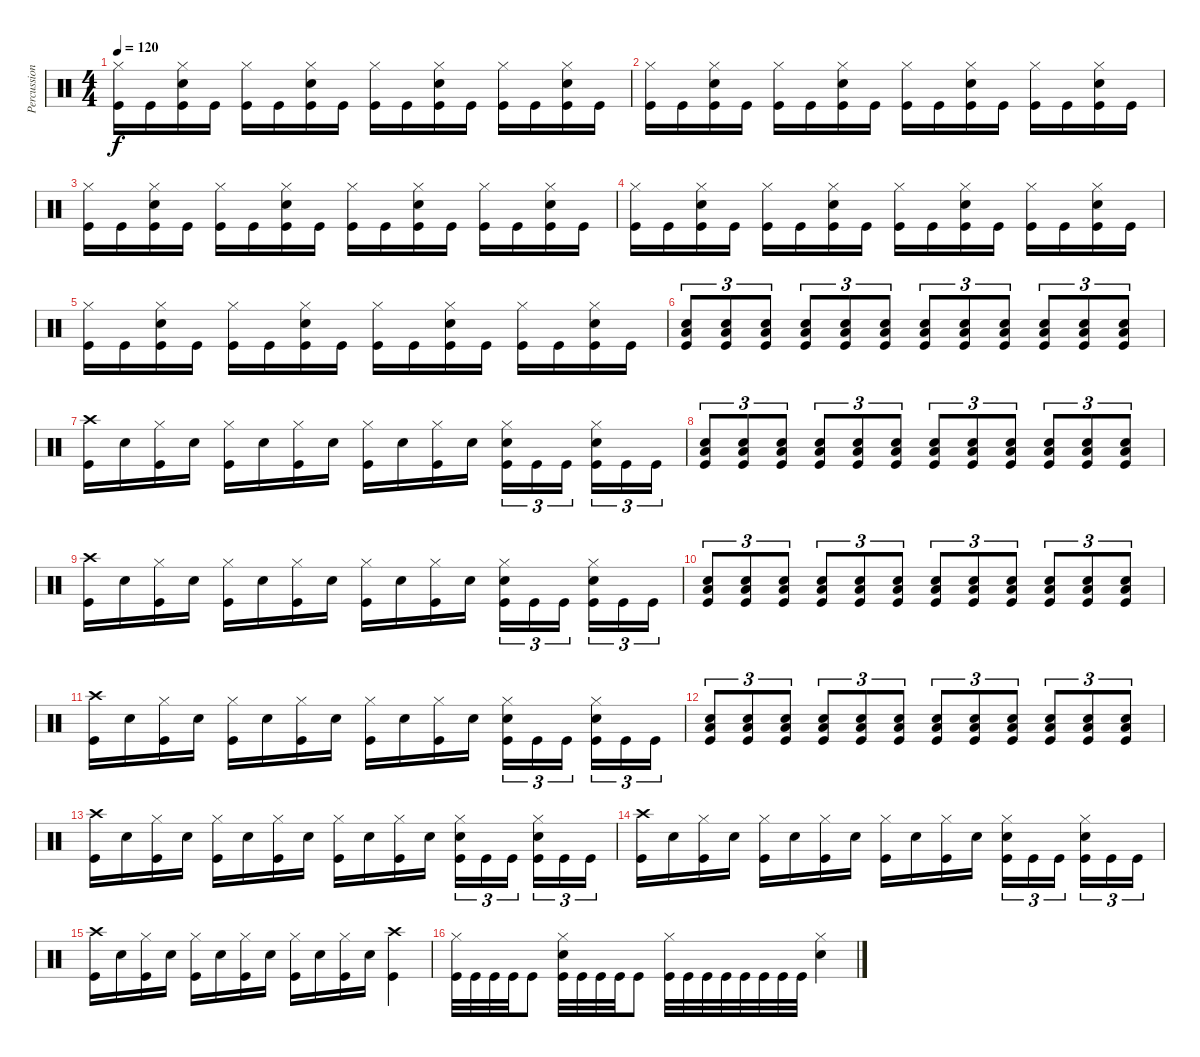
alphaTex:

\track ("Percussion" "Percussion") {instrument percussion}
\staff {score}
\articulation defaults
\ts (4 4)
\tempo 120
\clef neutral
\ks c
("Hi-Hat (closed)" "Kick (hit)").16{dy f} "Kick (hit)".16 ("Hi-Hat (closed)" "Snare (hit) 2" "Kick (hit)").16 "Kick (hit)".16 ("Hi-Hat (closed)" "Kick (hit)").16 "Kick (hit)".16 ("Hi-Hat (closed)" "Snare (hit) 2" "Kick (hit)").16 "Kick (hit)".16 ("Hi-Hat (closed)" "Kick (hit)").16 "Kick (hit)".16 ("Hi-Hat (closed)" "Snare (hit) 2" "Kick (hit)").16 "Kick (hit)".16 ("Hi-Hat (closed)" "Kick (hit)").16 "Kick (hit)".16 ("Hi-Hat (closed)" "Snare (hit) 2" "Kick (hit)").16 "Kick (hit)".16 |
("Hi-Hat (closed)" "Kick (hit)").16 "Kick (hit)".16 ("Hi-Hat (closed)" "Snare (hit) 2" "Kick (hit)").16 "Kick (hit)".16 ("Hi-Hat (closed)" "Kick (hit)").16 "Kick (hit)".16 ("Hi-Hat (closed)" "Snare (hit) 2" "Kick (hit)").16 "Kick (hit)".16 ("Hi-Hat (closed)" "Kick (hit)").16 "Kick (hit)".16 ("Hi-Hat (closed)" "Snare (hit) 2" "Kick (hit)").16 "Kick (hit)".16 ("Hi-Hat (closed)" "Kick (hit)").16 "Kick (hit)".16 ("Hi-Hat (closed)" "Snare (hit) 2" "Kick (hit)").16 "Kick (hit)".16 |
("Hi-Hat (closed)" "Kick (hit)").16 "Kick (hit)".16 ("Hi-Hat (closed)" "Snare (hit) 2" "Kick (hit)").16 "Kick (hit)".16 ("Hi-Hat (closed)" "Kick (hit)").16 "Kick (hit)".16 ("Hi-Hat (closed)" "Snare (hit) 2" "Kick (hit)").16 "Kick (hit)".16 ("Hi-Hat (closed)" "Kick (hit)").16 "Kick (hit)".16 ("Hi-Hat (closed)" "Snare (hit) 2" "Kick (hit)").16 "Kick (hit)".16 ("Hi-Hat (closed)" "Kick (hit)").16 "Kick (hit)".16 ("Hi-Hat (closed)" "Snare (hit) 2" "Kick (hit)").16 "Kick (hit)".16 |
("Hi-Hat (closed)" "Kick (hit)").16 "Kick (hit)".16 ("Hi-Hat (closed)" "Snare (hit) 2" "Kick (hit)").16 "Kick (hit)".16 ("Hi-Hat (closed)" "Kick (hit)").16 "Kick (hit)".16 ("Hi-Hat (closed)" "Snare (hit) 2" "Kick (hit)").16 "Kick (hit)".16 ("Hi-Hat (closed)" "Kick (hit)").16 "Kick (hit)".16 ("Hi-Hat (closed)" "Snare (hit) 2" "Kick (hit)").16 "Kick (hit)".16 ("Hi-Hat (closed)" "Kick (hit)").16 "Kick (hit)".16 ("Hi-Hat (closed)" "Snare (hit) 2" "Kick (hit)").16 "Kick (hit)".16 |
("Hi-Hat (closed)" "Kick (hit)").16 "Kick (hit)".16 ("Hi-Hat (closed)" "Snare (hit) 2" "Kick (hit)").16 "Kick (hit)".16 ("Hi-Hat (closed)" "Kick (hit)").16 "Kick (hit)".16 ("Hi-Hat (closed)" "Snare (hit) 2" "Kick (hit)").16 "Kick (hit)".16 ("Hi-Hat (closed)" "Kick (hit)").16 "Kick (hit)".16 ("Hi-Hat (closed)" "Snare (hit) 2" "Kick (hit)").16 "Kick (hit)".16 ("Hi-Hat (closed)" "Kick (hit)").16 "Kick (hit)".16 ("Hi-Hat (closed)" "Snare (hit) 2" "Kick (hit)").16 "Kick (hit)".16 |
("Low Floor Tom (hit)" "Snare (hit) 2" "Kick (hit)").8{tu (3 2)} ("Low Floor Tom (hit)" "Snare (hit) 2" "Kick (hit)").8{tu (3 2)} ("Low Floor Tom (hit)" "Snare (hit) 2" "Kick (hit)").8{tu (3 2)} ("Low Floor Tom (hit)" "Snare (hit) 2" "Kick (hit)").8{tu (3 2)} ("Low Floor Tom (hit)" "Snare (hit) 2" "Kick (hit)").8{tu (3 2)} ("Low Floor Tom (hit)" "Snare (hit) 2" "Kick (hit)").8{tu (3 2)} ("Low Floor Tom (hit)" "Snare (hit) 2" "Kick (hit)").8{tu (3 2)} ("Low Floor Tom (hit)" "Snare (hit) 2" "Kick (hit)").8{tu (3 2)} ("Low Floor Tom (hit)" "Snare (hit) 2" "Kick (hit)").8{tu (3 2)} ("Low Floor Tom (hit)" "Snare (hit) 2" "Kick (hit)").8{tu (3 2)} ("Low Floor Tom (hit)" "Snare (hit) 2" "Kick (hit)").8{tu (3 2)} ("Low Floor Tom (hit)" "Snare (hit) 2" "Kick (hit)").8{tu (3 2)} |
("Crash high (hit)" "Kick (hit)").16 "Snare (hit) 2".16 ("Hi-Hat (closed)" "Kick (hit)").16 "Snare (hit) 2".16 ("Hi-Hat (closed)" "Kick (hit)").16 "Snare (hit) 2".16 ("Hi-Hat (closed)" "Kick (hit)").16 "Snare (hit) 2".16 ("Hi-Hat (closed)" "Kick (hit)").16 "Snare (hit) 2".16 ("Hi-Hat (closed)" "Kick (hit)").16 "Snare (hit) 2".16 ("Hi-Hat (closed)" "Snare (hit) 2" "Kick (hit)").16{tu (3 2)} "Kick (hit)".16{tu (3 2)} "Kick (hit)".16{tu (3 2) beam splitsecondary} ("Hi-Hat (closed)" "Snare (hit) 2" "Kick (hit)").16{tu (3 2)} "Kick (hit)".16{tu (3 2)} "Kick (hit)".16{tu (3 2)} |
("Low Floor Tom (hit)" "Snare (hit) 2" "Kick (hit)").8{tu (3 2)} ("Low Floor Tom (hit)" "Snare (hit) 2" "Kick (hit)").8{tu (3 2)} ("Low Floor Tom (hit)" "Snare (hit) 2" "Kick (hit)").8{tu (3 2)} ("Low Floor Tom (hit)" "Snare (hit) 2" "Kick (hit)").8{tu (3 2)} ("Low Floor Tom (hit)" "Snare (hit) 2" "Kick (hit)").8{tu (3 2)} ("Low Floor Tom (hit)" "Snare (hit) 2" "Kick (hit)").8{tu (3 2)} ("Low Floor Tom (hit)" "Snare (hit) 2" "Kick (hit)").8{tu (3 2)} ("Low Floor Tom (hit)" "Snare (hit) 2" "Kick (hit)").8{tu (3 2)} ("Low Floor Tom (hit)" "Snare (hit) 2" "Kick (hit)").8{tu (3 2)} ("Low Floor Tom (hit)" "Snare (hit) 2" "Kick (hit)").8{tu (3 2)} ("Low Floor Tom (hit)" "Snare (hit) 2" "Kick (hit)").8{tu (3 2)} ("Low Floor Tom (hit)" "Snare (hit) 2" "Kick (hit)").8{tu (3 2)} |
("Crash high (hit)" "Kick (hit)").16 "Snare (hit) 2".16 ("Hi-Hat (closed)" "Kick (hit)").16 "Snare (hit) 2".16 ("Hi-Hat (closed)" "Kick (hit)").16 "Snare (hit) 2".16 ("Hi-Hat (closed)" "Kick (hit)").16 "Snare (hit) 2".16 ("Hi-Hat (closed)" "Kick (hit)").16 "Snare (hit) 2".16 ("Hi-Hat (closed)" "Kick (hit)").16 "Snare (hit) 2".16 ("Hi-Hat (closed)" "Snare (hit) 2" "Kick (hit)").16{tu (3 2)} "Kick (hit)".16{tu (3 2)} "Kick (hit)".16{tu (3 2) beam splitsecondary} ("Hi-Hat (closed)" "Snare (hit) 2" "Kick (hit)").16{tu (3 2)} "Kick (hit)".16{tu (3 2)} "Kick (hit)".16{tu (3 2)} |
("Low Floor Tom (hit)" "Snare (hit) 2" "Kick (hit)").8{tu (3 2)} ("Low Floor Tom (hit)" "Snare (hit) 2" "Kick (hit)").8{tu (3 2)} ("Low Floor Tom (hit)" "Snare (hit) 2" "Kick (hit)").8{tu (3 2)} ("Low Floor Tom (hit)" "Snare (hit) 2" "Kick (hit)").8{tu (3 2)} ("Low Floor Tom (hit)" "Snare (hit) 2" "Kick (hit)").8{tu (3 2)} ("Low Floor Tom (hit)" "Snare (hit) 2" "Kick (hit)").8{tu (3 2)} ("Low Floor Tom (hit)" "Snare (hit) 2" "Kick (hit)").8{tu (3 2)} ("Low Floor Tom (hit)" "Snare (hit) 2" "Kick (hit)").8{tu (3 2)} ("Low Floor Tom (hit)" "Snare (hit) 2" "Kick (hit)").8{tu (3 2)} ("Low Floor Tom (hit)" "Snare (hit) 2" "Kick (hit)").8{tu (3 2)} ("Low Floor Tom (hit)" "Snare (hit) 2" "Kick (hit)").8{tu (3 2)} ("Low Floor Tom (hit)" "Snare (hit) 2" "Kick (hit)").8{tu (3 2)} |
("Crash high (hit)" "Kick (hit)").16 "Snare (hit) 2".16 ("Hi-Hat (closed)" "Kick (hit)").16 "Snare (hit) 2".16 ("Hi-Hat (closed)" "Kick (hit)").16 "Snare (hit) 2".16 ("Hi-Hat (closed)" "Kick (hit)").16 "Snare (hit) 2".16 ("Hi-Hat (closed)" "Kick (hit)").16 "Snare (hit) 2".16 ("Hi-Hat (closed)" "Kick (hit)").16 "Snare (hit) 2".16 ("Hi-Hat (closed)" "Snare (hit) 2" "Kick (hit)").16{tu (3 2)} "Kick (hit)".16{tu (3 2)} "Kick (hit)".16{tu (3 2) beam splitsecondary} ("Hi-Hat (closed)" "Snare (hit) 2" "Kick (hit)").16{tu (3 2)} "Kick (hit)".16{tu (3 2)} "Kick (hit)".16{tu (3 2)} |
("Low Floor Tom (hit)" "Snare (hit) 2" "Kick (hit)").8{tu (3 2)} ("Low Floor Tom (hit)" "Snare (hit) 2" "Kick (hit)").8{tu (3 2)} ("Low Floor Tom (hit)" "Snare (hit) 2" "Kick (hit)").8{tu (3 2)} ("Low Floor Tom (hit)" "Snare (hit) 2" "Kick (hit)").8{tu (3 2)} ("Low Floor Tom (hit)" "Snare (hit) 2" "Kick (hit)").8{tu (3 2)} ("Low Floor Tom (hit)" "Snare (hit) 2" "Kick (hit)").8{tu (3 2)} ("Low Floor Tom (hit)" "Snare (hit) 2" "Kick (hit)").8{tu (3 2)} ("Low Floor Tom (hit)" "Snare (hit) 2" "Kick (hit)").8{tu (3 2)} ("Low Floor Tom (hit)" "Snare (hit) 2" "Kick (hit)").8{tu (3 2)} ("Low Floor Tom (hit)" "Snare (hit) 2" "Kick (hit)").8{tu (3 2)} ("Low Floor Tom (hit)" "Snare (hit) 2" "Kick (hit)").8{tu (3 2)} ("Low Floor Tom (hit)" "Snare (hit) 2" "Kick (hit)").8{tu (3 2)} |
("Crash high (hit)" "Kick (hit)").16 "Snare (hit) 2".16 ("Hi-Hat (closed)" "Kick (hit)").16 "Snare (hit) 2".16 ("Hi-Hat (closed)" "Kick (hit)").16 "Snare (hit) 2".16 ("Hi-Hat (closed)" "Kick (hit)").16 "Snare (hit) 2".16 ("Hi-Hat (closed)" "Kick (hit)").16 "Snare (hit) 2".16 ("Hi-Hat (closed)" "Kick (hit)").16 "Snare (hit) 2".16 ("Hi-Hat (closed)" "Snare (hit) 2" "Kick (hit)").16{tu (3 2)} "Kick (hit)".16{tu (3 2)} "Kick (hit)".16{tu (3 2) beam splitsecondary} ("Hi-Hat (closed)" "Snare (hit) 2" "Kick (hit)").16{tu (3 2)} "Kick (hit)".16{tu (3 2)} "Kick (hit)".16{tu (3 2)} |
("Crash high (hit)" "Kick (hit)").16 "Snare (hit) 2".16 ("Hi-Hat (closed)" "Kick (hit)").16 "Snare (hit) 2".16 ("Hi-Hat (closed)" "Kick (hit)").16 "Snare (hit) 2".16 ("Hi-Hat (closed)" "Kick (hit)").16 "Snare (hit) 2".16 ("Hi-Hat (closed)" "Kick (hit)").16 "Snare (hit) 2".16 ("Hi-Hat (closed)" "Kick (hit)").16 "Snare (hit) 2".16 ("Hi-Hat (closed)" "Snare (hit) 2" "Kick (hit)").16{tu (3 2)} "Kick (hit)".16{tu (3 2)} "Kick (hit)".16{tu (3 2) beam splitsecondary} ("Hi-Hat (closed)" "Snare (hit) 2" "Kick (hit)").16{tu (3 2)} "Kick (hit)".16{tu (3 2)} "Kick (hit)".16{tu (3 2)} |
("Crash high (hit)" "Kick (hit)").16 "Snare (hit) 2".16 ("Hi-Hat (closed)" "Kick (hit)").16 "Snare (hit) 2".16 ("Hi-Hat (closed)" "Kick (hit)").16 "Snare (hit) 2".16 ("Hi-Hat (closed)" "Kick (hit)").16 "Snare (hit) 2".16 ("Hi-Hat (closed)" "Kick (hit)").16 "Snare (hit) 2".16 ("Hi-Hat (closed)" "Kick (hit)").16 "Snare (hit) 2".16 ("Crash high (hit)" "Kick (hit)").4 |
("Hi-Hat (closed)" "Kick (hit)").32 "Kick (hit)".32 "Kick (hit)".32 "Kick (hit)".32 "Kick (hit)".8 ("Hi-Hat (closed)" "Snare (hit) 2" "Kick (hit)").32 "Kick (hit)".32 "Kick (hit)".32 "Kick (hit)".32 "Kick (hit)".8 ("Hi-Hat (closed)" "Kick (hit)").32 "Kick (hit)".32 "Kick (hit)".32 "Kick (hit)".32 "Kick (hit)".32 "Kick (hit)".32 "Kick (hit)".32 "Kick (hit)".32 ("Hi-Hat (closed)" "Snare (hit) 2").4
